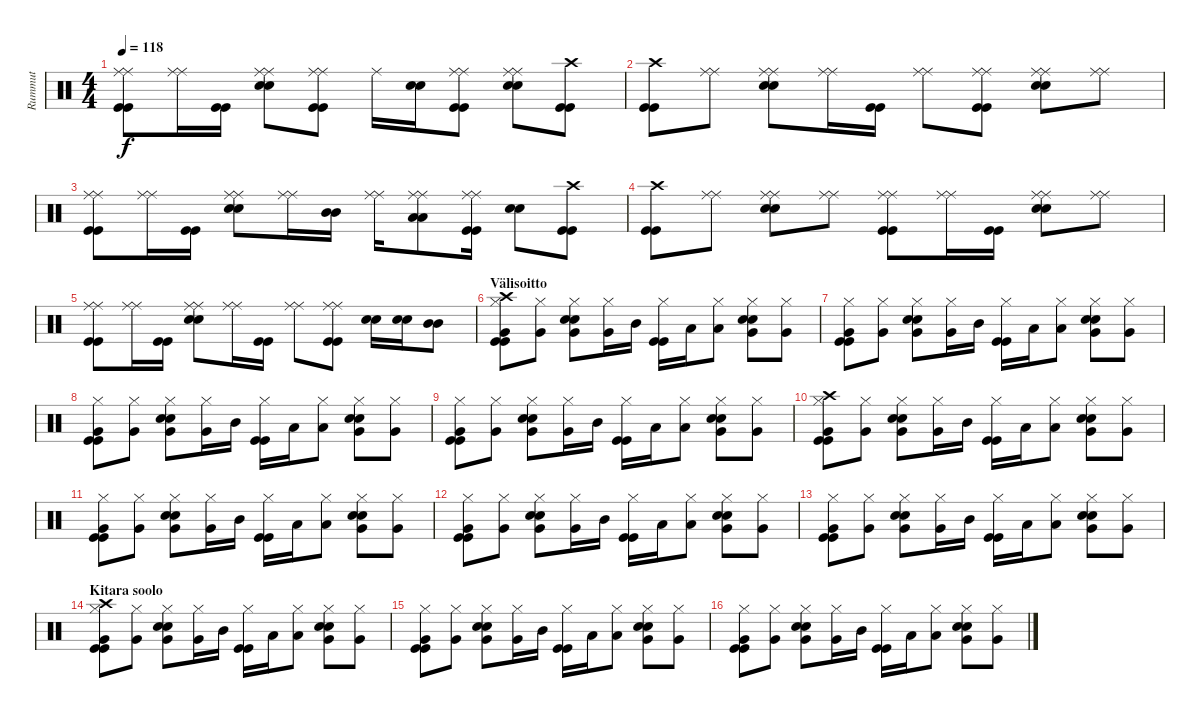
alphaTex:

\track ("Rummut" "Rummut") {instrument percussion}
\staff {score}
\articulation defaults
\ts (4 4)
\tempo 118
\clef neutral
\ks c
("Ride (middle)" "Ride (middle)" "Kick (hit)" "Kick (hit)").8{dy f} ("Ride (middle)" "Ride (middle)").16 ("Kick (hit)" "Kick (hit)").16 ("Ride (middle)" "Ride (middle)" "Snare (hit) 2" "Snare (hit) 2").8 ("Ride (middle)" "Ride (middle)" "Kick (hit)" "Kick (hit)").8 "Ride (middle)".16 ("Snare (hit) 2" "Snare (hit) 2").16 ("Ride (middle)" "Ride (middle)" "Kick (hit)" "Kick (hit)").8 ("Ride (middle)" "Ride (middle)" "Snare (hit) 2" "Snare (hit) 2").8 ("Crash high (hit)" "Kick (hit)" "Kick (hit)").8 |
("Crash high (hit)" "Kick (hit)" "Kick (hit)").8 ("Ride (middle)" "Ride (middle)").8 ("Ride (middle)" "Ride (middle)" "Snare (hit) 2" "Snare (hit) 2").8 ("Ride (middle)" "Ride (middle)").16 ("Kick (hit)" "Kick (hit)").16 ("Ride (middle)" "Ride (middle)").8 ("Ride (middle)" "Ride (middle)" "Kick (hit)" "Kick (hit)").8 ("Ride (middle)" "Ride (middle)" "Snare (hit) 2" "Snare (hit) 2").8 ("Ride (middle)" "Ride (middle)").8 |
("Ride (middle)" "Ride (middle)" "Kick (hit)" "Kick (hit)").8 ("Ride (middle)" "Ride (middle)").16 ("Kick (hit)" "Kick (hit)").16 ("Ride (middle)" "Ride (middle)" "Snare (hit) 2" "Snare (hit) 2").8 ("Ride (middle)" "Ride (middle)").16 ("Mid Tom (hit)" "Mid Tom (hit)").16 ("Ride (middle)" "Ride (middle)").16 ("Ride (middle)" "Ride (middle)" "Low Tom (hit)" "Low Tom (hit)").8 ("Ride (middle)" "Ride (middle)" "Kick (hit)" "Kick (hit)").16 ("Snare (hit) 2" "Snare (hit) 2").8 ("Crash high (hit)" "Kick (hit)" "Kick (hit)").8 |
("Crash high (hit)" "Kick (hit)" "Kick (hit)").8 ("Ride (middle)" "Ride (middle)").8 ("Ride (middle)" "Ride (middle)" "Snare (hit) 2" "Snare (hit) 2").8 ("Ride (middle)" "Ride (middle)").8 ("Ride (middle)" "Ride (middle)" "Kick (hit)" "Kick (hit)").8 ("Ride (middle)" "Ride (middle)").16 ("Kick (hit)" "Kick (hit)").16 ("Ride (middle)" "Ride (middle)" "Snare (hit) 2" "Snare (hit) 2").8 ("Ride (middle)" "Ride (middle)").8 |
("Ride (middle)" "Ride (middle)" "Kick (hit)" "Kick (hit)").8 ("Ride (middle)" "Ride (middle)").16 ("Kick (hit)" "Kick (hit)").16 ("Ride (middle)" "Ride (middle)" "Snare (hit) 2" "Snare (hit) 2").8 ("Ride (middle)" "Ride (middle)").16 ("Kick (hit)" "Kick (hit)").16 ("Ride (middle)" "Ride (middle)").8 ("Ride (middle)" "Ride (middle)" "Kick (hit)" "Kick (hit)").8 ("Snare (hit) 2" "Snare (hit) 2").16 ("Snare (hit) 2" "Snare (hit) 2").16 ("Mid Tom (hit)" "Mid Tom (hit)").8 |
\section ("" "Välisoitto")
("Crash high (hit)" "Hi-Hat (closed)" "Very Low Tom (hit)" "Kick (hit)" "Kick (hit)").8 ("Hi-Hat (closed)" "Very Low Tom (hit)").8 ("Hi-Hat (closed)" "Very Low Tom (hit)" "Snare (hit) 2" "Snare (hit) 2").8 ("Hi-Hat (closed)" "Very Low Tom (hit)").16 "Mid Tom (hit)".16 ("Hi-Hat (closed)" "Kick (hit)" "Kick (hit)").16 "Low Tom (hit)".16 ("Hi-Hat (closed)" "Low Tom (hit)").8 ("Hi-Hat (closed)" "Very Low Tom (hit)" "Snare (hit) 2" "Snare (hit) 2").8 ("Hi-Hat (closed)" "Very Low Tom (hit)").8 |
("Hi-Hat (closed)" "Very Low Tom (hit)" "Kick (hit)" "Kick (hit)").8 ("Hi-Hat (closed)" "Very Low Tom (hit)").8 ("Hi-Hat (closed)" "Very Low Tom (hit)" "Snare (hit) 2" "Snare (hit) 2").8 ("Hi-Hat (closed)" "Very Low Tom (hit)").16 "Mid Tom (hit)".16 ("Hi-Hat (closed)" "Kick (hit)" "Kick (hit)").16 "Low Tom (hit)".16 ("Hi-Hat (closed)" "Low Tom (hit)").8 ("Hi-Hat (closed)" "Very Low Tom (hit)" "Snare (hit) 2" "Snare (hit) 2").8 ("Hi-Hat (closed)" "Very Low Tom (hit)").8 |
("Hi-Hat (closed)" "Very Low Tom (hit)" "Kick (hit)" "Kick (hit)").8 ("Hi-Hat (closed)" "Very Low Tom (hit)").8 ("Hi-Hat (closed)" "Very Low Tom (hit)" "Snare (hit) 2" "Snare (hit) 2").8 ("Hi-Hat (closed)" "Very Low Tom (hit)").16 "Mid Tom (hit)".16 ("Hi-Hat (closed)" "Kick (hit)" "Kick (hit)").16 "Low Tom (hit)".16 ("Hi-Hat (closed)" "Low Tom (hit)").8 ("Hi-Hat (closed)" "Very Low Tom (hit)" "Snare (hit) 2" "Snare (hit) 2").8 ("Hi-Hat (closed)" "Very Low Tom (hit)").8 |
("Hi-Hat (closed)" "Very Low Tom (hit)" "Kick (hit)" "Kick (hit)").8 ("Hi-Hat (closed)" "Very Low Tom (hit)").8 ("Hi-Hat (closed)" "Very Low Tom (hit)" "Snare (hit) 2" "Snare (hit) 2").8 ("Hi-Hat (closed)" "Very Low Tom (hit)").16 "Mid Tom (hit)".16 ("Hi-Hat (closed)" "Kick (hit)" "Kick (hit)").16 "Low Tom (hit)".16 ("Hi-Hat (closed)" "Low Tom (hit)").8 ("Hi-Hat (closed)" "Very Low Tom (hit)" "Snare (hit) 2" "Snare (hit) 2").8 ("Hi-Hat (closed)" "Very Low Tom (hit)").8 |
("Crash high (hit)" "Hi-Hat (closed)" "Very Low Tom (hit)" "Kick (hit)" "Kick (hit)").8 ("Hi-Hat (closed)" "Very Low Tom (hit)").8 ("Hi-Hat (closed)" "Very Low Tom (hit)" "Snare (hit) 2" "Snare (hit) 2").8 ("Hi-Hat (closed)" "Very Low Tom (hit)").16 "Mid Tom (hit)".16 ("Hi-Hat (closed)" "Kick (hit)" "Kick (hit)").16 "Low Tom (hit)".16 ("Hi-Hat (closed)" "Low Tom (hit)").8 ("Hi-Hat (closed)" "Very Low Tom (hit)" "Snare (hit) 2" "Snare (hit) 2").8 ("Hi-Hat (closed)" "Very Low Tom (hit)").8 |
("Hi-Hat (closed)" "Very Low Tom (hit)" "Kick (hit)" "Kick (hit)").8 ("Hi-Hat (closed)" "Very Low Tom (hit)").8 ("Hi-Hat (closed)" "Very Low Tom (hit)" "Snare (hit) 2" "Snare (hit) 2").8 ("Hi-Hat (closed)" "Very Low Tom (hit)").16 "Mid Tom (hit)".16 ("Hi-Hat (closed)" "Kick (hit)" "Kick (hit)").16 "Low Tom (hit)".16 ("Hi-Hat (closed)" "Low Tom (hit)").8 ("Hi-Hat (closed)" "Very Low Tom (hit)" "Snare (hit) 2" "Snare (hit) 2").8 ("Hi-Hat (closed)" "Very Low Tom (hit)").8 |
("Hi-Hat (closed)" "Very Low Tom (hit)" "Kick (hit)" "Kick (hit)").8 ("Hi-Hat (closed)" "Very Low Tom (hit)").8 ("Hi-Hat (closed)" "Very Low Tom (hit)" "Snare (hit) 2" "Snare (hit) 2").8 ("Hi-Hat (closed)" "Very Low Tom (hit)").16 "Mid Tom (hit)".16 ("Hi-Hat (closed)" "Kick (hit)" "Kick (hit)").16 "Low Tom (hit)".16 ("Hi-Hat (closed)" "Low Tom (hit)").8 ("Hi-Hat (closed)" "Very Low Tom (hit)" "Snare (hit) 2" "Snare (hit) 2").8 ("Hi-Hat (closed)" "Very Low Tom (hit)").8 |
("Hi-Hat (closed)" "Very Low Tom (hit)" "Kick (hit)" "Kick (hit)").8 ("Hi-Hat (closed)" "Very Low Tom (hit)").8 ("Hi-Hat (closed)" "Very Low Tom (hit)" "Snare (hit) 2" "Snare (hit) 2").8 ("Hi-Hat (closed)" "Very Low Tom (hit)").16 "Mid Tom (hit)".16 ("Hi-Hat (closed)" "Kick (hit)" "Kick (hit)").16 "Low Tom (hit)".16 ("Hi-Hat (closed)" "Low Tom (hit)").8 ("Hi-Hat (closed)" "Very Low Tom (hit)" "Snare (hit) 2" "Snare (hit) 2").8 ("Hi-Hat (closed)" "Very Low Tom (hit)").8 |
\section ("" "Kitara soolo")
("Crash high (hit)" "Hi-Hat (closed)" "Very Low Tom (hit)" "Kick (hit)" "Kick (hit)").8 ("Hi-Hat (closed)" "Very Low Tom (hit)").8 ("Hi-Hat (closed)" "Very Low Tom (hit)" "Snare (hit) 2" "Snare (hit) 2").8 ("Hi-Hat (closed)" "Very Low Tom (hit)").16 "Mid Tom (hit)".16 ("Hi-Hat (closed)" "Kick (hit)" "Kick (hit)").16 "Low Tom (hit)".16 ("Hi-Hat (closed)" "Low Tom (hit)").8 ("Hi-Hat (closed)" "Very Low Tom (hit)" "Snare (hit) 2" "Snare (hit) 2").8 ("Hi-Hat (closed)" "Very Low Tom (hit)").8 |
("Hi-Hat (closed)" "Very Low Tom (hit)" "Kick (hit)" "Kick (hit)").8 ("Hi-Hat (closed)" "Very Low Tom (hit)").8 ("Hi-Hat (closed)" "Very Low Tom (hit)" "Snare (hit) 2" "Snare (hit) 2").8 ("Hi-Hat (closed)" "Very Low Tom (hit)").16 "Mid Tom (hit)".16 ("Hi-Hat (closed)" "Kick (hit)" "Kick (hit)").16 "Low Tom (hit)".16 ("Hi-Hat (closed)" "Low Tom (hit)").8 ("Hi-Hat (closed)" "Very Low Tom (hit)" "Snare (hit) 2" "Snare (hit) 2").8 ("Hi-Hat (closed)" "Very Low Tom (hit)").8 |
("Hi-Hat (closed)" "Very Low Tom (hit)" "Kick (hit)" "Kick (hit)").8 ("Hi-Hat (closed)" "Very Low Tom (hit)").8 ("Hi-Hat (closed)" "Very Low Tom (hit)" "Snare (hit) 2" "Snare (hit) 2").8 ("Hi-Hat (closed)" "Very Low Tom (hit)").16 "Mid Tom (hit)".16 ("Hi-Hat (closed)" "Kick (hit)" "Kick (hit)").16 "Low Tom (hit)".16 ("Hi-Hat (closed)" "Low Tom (hit)").8 ("Hi-Hat (closed)" "Very Low Tom (hit)" "Snare (hit) 2" "Snare (hit) 2").8 ("Hi-Hat (closed)" "Very Low Tom (hit)").8
